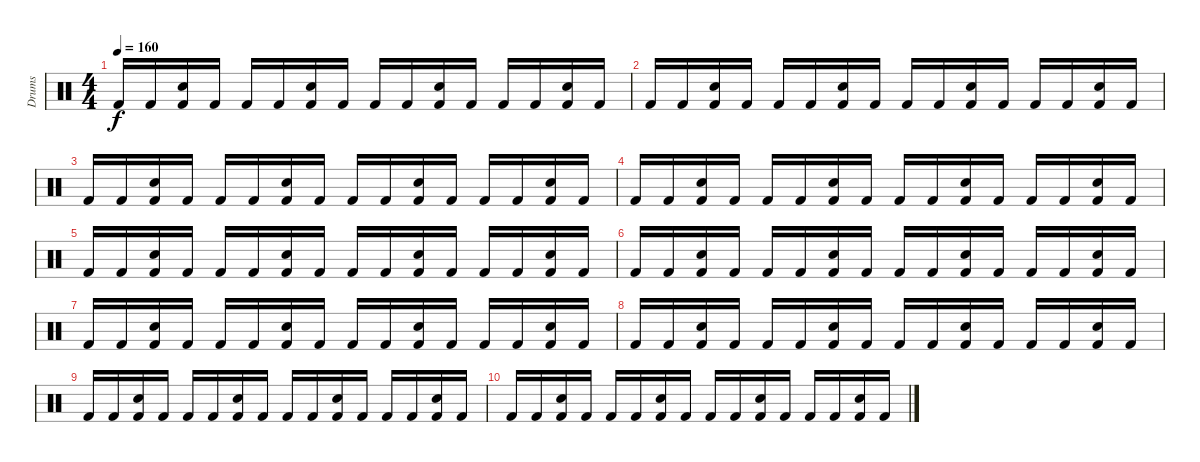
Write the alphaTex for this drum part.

\track ("Drums" "Drums") {instrument percussion}
\staff {score}
\articulation defaults
\ts (4 4)
\tempo 160
\clef neutral
\ks c "Kick (hit) 2".16{dy f} "Kick (hit) 2".16
("Snare (hit) 2" "Kick (hit) 2").16 "Kick (hit) 2".16 "Kick (hit) 2".16 "Kick (hit) 2".16 ("Snare (hit) 2" "Kick (hit) 2").16 "Kick (hit) 2".16 "Kick (hit) 2".16 "Kick (hit) 2".16 ("Snare (hit) 2" "Kick (hit) 2").16 "Kick (hit) 2".16 "Kick (hit) 2".16 "Kick (hit) 2".16 ("Snare (hit) 2" "Kick (hit) 2").16 "Kick (hit) 2".16 |
"Kick (hit) 2".16 "Kick (hit) 2".16 ("Snare (hit) 2" "Kick (hit) 2").16 "Kick (hit) 2".16 "Kick (hit) 2".16 "Kick (hit) 2".16 ("Snare (hit) 2" "Kick (hit) 2").16 "Kick (hit) 2".16 "Kick (hit) 2".16 "Kick (hit) 2".16 ("Snare (hit) 2" "Kick (hit) 2").16 "Kick (hit) 2".16 "Kick (hit) 2".16 "Kick (hit) 2".16 ("Snare (hit) 2" "Kick (hit) 2").16 "Kick (hit) 2".16 |
"Kick (hit) 2".16 "Kick (hit) 2".16 ("Snare (hit) 2" "Kick (hit) 2").16 "Kick (hit) 2".16 "Kick (hit) 2".16 "Kick (hit) 2".16 ("Snare (hit) 2" "Kick (hit) 2").16 "Kick (hit) 2".16 "Kick (hit) 2".16 "Kick (hit) 2".16 ("Snare (hit) 2" "Kick (hit) 2").16 "Kick (hit) 2".16 "Kick (hit) 2".16 "Kick (hit) 2".16 ("Snare (hit) 2" "Kick (hit) 2").16 "Kick (hit) 2".16 |
"Kick (hit) 2".16 "Kick (hit) 2".16 ("Snare (hit) 2" "Kick (hit) 2").16 "Kick (hit) 2".16 "Kick (hit) 2".16 "Kick (hit) 2".16 ("Snare (hit) 2" "Kick (hit) 2").16 "Kick (hit) 2".16 "Kick (hit) 2".16 "Kick (hit) 2".16 ("Snare (hit) 2" "Kick (hit) 2").16 "Kick (hit) 2".16 "Kick (hit) 2".16 "Kick (hit) 2".16 ("Snare (hit) 2" "Kick (hit) 2").16 "Kick (hit) 2".16 |
"Kick (hit) 2".16 "Kick (hit) 2".16 ("Snare (hit) 2" "Kick (hit) 2").16 "Kick (hit) 2".16 "Kick (hit) 2".16 "Kick (hit) 2".16 ("Snare (hit) 2" "Kick (hit) 2").16 "Kick (hit) 2".16 "Kick (hit) 2".16 "Kick (hit) 2".16 ("Snare (hit) 2" "Kick (hit) 2").16 "Kick (hit) 2".16 "Kick (hit) 2".16 "Kick (hit) 2".16 ("Snare (hit) 2" "Kick (hit) 2").16 "Kick (hit) 2".16 |
"Kick (hit) 2".16 "Kick (hit) 2".16 ("Snare (hit) 2" "Kick (hit) 2").16 "Kick (hit) 2".16 "Kick (hit) 2".16 "Kick (hit) 2".16 ("Snare (hit) 2" "Kick (hit) 2").16 "Kick (hit) 2".16 "Kick (hit) 2".16 "Kick (hit) 2".16 ("Snare (hit) 2" "Kick (hit) 2").16 "Kick (hit) 2".16 "Kick (hit) 2".16 "Kick (hit) 2".16 ("Snare (hit) 2" "Kick (hit) 2").16 "Kick (hit) 2".16 |
"Kick (hit) 2".16 "Kick (hit) 2".16 ("Snare (hit) 2" "Kick (hit) 2").16 "Kick (hit) 2".16 "Kick (hit) 2".16 "Kick (hit) 2".16 ("Snare (hit) 2" "Kick (hit) 2").16 "Kick (hit) 2".16 "Kick (hit) 2".16 "Kick (hit) 2".16 ("Snare (hit) 2" "Kick (hit) 2").16 "Kick (hit) 2".16 "Kick (hit) 2".16 "Kick (hit) 2".16 ("Snare (hit) 2" "Kick (hit) 2").16 "Kick (hit) 2".16 |
"Kick (hit) 2".16 "Kick (hit) 2".16 ("Snare (hit) 2" "Kick (hit) 2").16 "Kick (hit) 2".16 "Kick (hit) 2".16 "Kick (hit) 2".16 ("Snare (hit) 2" "Kick (hit) 2").16 "Kick (hit) 2".16 "Kick (hit) 2".16 "Kick (hit) 2".16 ("Snare (hit) 2" "Kick (hit) 2").16 "Kick (hit) 2".16 "Kick (hit) 2".16 "Kick (hit) 2".16 ("Snare (hit) 2" "Kick (hit) 2").16 "Kick (hit) 2".16 |
"Kick (hit) 2".16 "Kick (hit) 2".16 ("Snare (hit) 2" "Kick (hit) 2").16 "Kick (hit) 2".16 "Kick (hit) 2".16 "Kick (hit) 2".16 ("Snare (hit) 2" "Kick (hit) 2").16 "Kick (hit) 2".16 "Kick (hit) 2".16 "Kick (hit) 2".16 ("Snare (hit) 2" "Kick (hit) 2").16 "Kick (hit) 2".16 "Kick (hit) 2".16 "Kick (hit) 2".16 ("Snare (hit) 2" "Kick (hit) 2").16 "Kick (hit) 2".16 |
"Kick (hit) 2".16 "Kick (hit) 2".16 ("Snare (hit) 2" "Kick (hit) 2").16 "Kick (hit) 2".16 "Kick (hit) 2".16 "Kick (hit) 2".16 ("Snare (hit) 2" "Kick (hit) 2").16 "Kick (hit) 2".16 "Kick (hit) 2".16 "Kick (hit) 2".16 ("Snare (hit) 2" "Kick (hit) 2").16 "Kick (hit) 2".16 "Kick (hit) 2".16 "Kick (hit) 2".16 ("Snare (hit) 2" "Kick (hit) 2").16 "Kick (hit) 2".16
